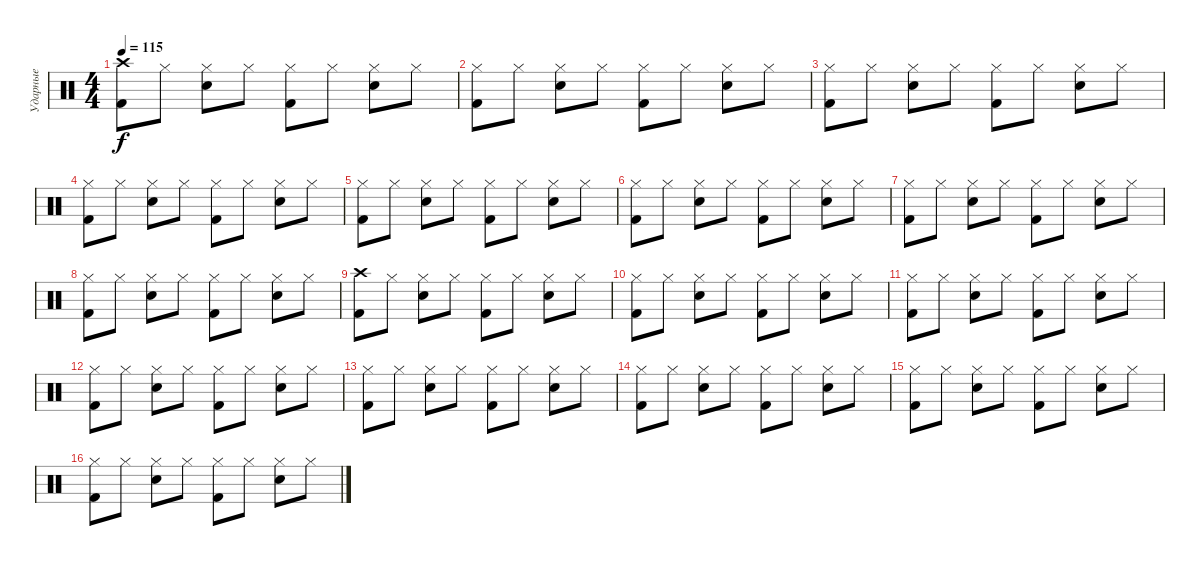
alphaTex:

\track ("Ударные" "Ударные") {instrument percussion}
\staff {score}
\articulation defaults
\ts (4 4)
\tempo 115
\clef neutral
\ks c
("Crash high (hit)" "Kick (hit) 2").8{dy f} "Hi-Hat (closed)".8 ("Hi-Hat (closed)" "Snare (hit) 2").8 "Hi-Hat (closed)".8 ("Hi-Hat (closed)" "Kick (hit) 2").8 "Hi-Hat (closed)".8 ("Hi-Hat (closed)" "Snare (hit) 2").8 "Hi-Hat (closed)".8 |
("Hi-Hat (closed)" "Kick (hit) 2").8 "Hi-Hat (closed)".8 ("Hi-Hat (closed)" "Snare (hit) 2").8 "Hi-Hat (closed)".8 ("Hi-Hat (closed)" "Kick (hit) 2").8 "Hi-Hat (closed)".8 ("Hi-Hat (closed)" "Snare (hit) 2").8 "Hi-Hat (closed)".8 |
("Hi-Hat (closed)" "Kick (hit) 2").8 "Hi-Hat (closed)".8 ("Hi-Hat (closed)" "Snare (hit) 2").8 "Hi-Hat (closed)".8 ("Hi-Hat (closed)" "Kick (hit) 2").8 "Hi-Hat (closed)".8 ("Hi-Hat (closed)" "Snare (hit) 2").8 "Hi-Hat (closed)".8 |
("Hi-Hat (closed)" "Kick (hit) 2").8 "Hi-Hat (closed)".8 ("Hi-Hat (closed)" "Snare (hit) 2").8 "Hi-Hat (closed)".8 ("Hi-Hat (closed)" "Kick (hit) 2").8 "Hi-Hat (closed)".8 ("Hi-Hat (closed)" "Snare (hit) 2").8 "Hi-Hat (closed)".8 |
("Hi-Hat (closed)" "Kick (hit) 2").8 "Hi-Hat (closed)".8 ("Hi-Hat (closed)" "Snare (hit) 2").8 "Hi-Hat (closed)".8 ("Hi-Hat (closed)" "Kick (hit) 2").8 "Hi-Hat (closed)".8 ("Hi-Hat (closed)" "Snare (hit) 2").8 "Hi-Hat (closed)".8 |
("Hi-Hat (closed)" "Kick (hit) 2").8 "Hi-Hat (closed)".8 ("Hi-Hat (closed)" "Snare (hit) 2").8 "Hi-Hat (closed)".8 ("Hi-Hat (closed)" "Kick (hit) 2").8 "Hi-Hat (closed)".8 ("Hi-Hat (closed)" "Snare (hit) 2").8 "Hi-Hat (closed)".8 |
("Hi-Hat (closed)" "Kick (hit) 2").8 "Hi-Hat (closed)".8 ("Hi-Hat (closed)" "Snare (hit) 2").8 "Hi-Hat (closed)".8 ("Hi-Hat (closed)" "Kick (hit) 2").8 "Hi-Hat (closed)".8 ("Hi-Hat (closed)" "Snare (hit) 2").8 "Hi-Hat (closed)".8 |
("Hi-Hat (closed)" "Kick (hit) 2").8 "Hi-Hat (closed)".8 ("Hi-Hat (closed)" "Snare (hit) 2").8 "Hi-Hat (closed)".8 ("Hi-Hat (closed)" "Kick (hit) 2").8 "Hi-Hat (closed)".8 ("Hi-Hat (closed)" "Snare (hit) 2").8 "Hi-Hat (closed)".8 |
("Crash high (hit)" "Kick (hit) 2").8 "Hi-Hat (closed)".8 ("Hi-Hat (closed)" "Snare (hit) 2").8 "Hi-Hat (closed)".8 ("Hi-Hat (closed)" "Kick (hit) 2").8 "Hi-Hat (closed)".8 ("Hi-Hat (closed)" "Snare (hit) 2").8 "Hi-Hat (closed)".8 |
("Hi-Hat (closed)" "Kick (hit) 2").8 "Hi-Hat (closed)".8 ("Hi-Hat (closed)" "Snare (hit) 2").8 "Hi-Hat (closed)".8 ("Hi-Hat (closed)" "Kick (hit) 2").8 "Hi-Hat (closed)".8 ("Hi-Hat (closed)" "Snare (hit) 2").8 "Hi-Hat (closed)".8 |
("Hi-Hat (closed)" "Kick (hit) 2").8 "Hi-Hat (closed)".8 ("Hi-Hat (closed)" "Snare (hit) 2").8 "Hi-Hat (closed)".8 ("Hi-Hat (closed)" "Kick (hit) 2").8 "Hi-Hat (closed)".8 ("Hi-Hat (closed)" "Snare (hit) 2").8 "Hi-Hat (closed)".8 |
("Hi-Hat (closed)" "Kick (hit) 2").8 "Hi-Hat (closed)".8 ("Hi-Hat (closed)" "Snare (hit) 2").8 "Hi-Hat (closed)".8 ("Hi-Hat (closed)" "Kick (hit) 2").8 "Hi-Hat (closed)".8 ("Hi-Hat (closed)" "Snare (hit) 2").8 "Hi-Hat (closed)".8 |
("Hi-Hat (closed)" "Kick (hit) 2").8 "Hi-Hat (closed)".8 ("Hi-Hat (closed)" "Snare (hit) 2").8 "Hi-Hat (closed)".8 ("Hi-Hat (closed)" "Kick (hit) 2").8 "Hi-Hat (closed)".8 ("Hi-Hat (closed)" "Snare (hit) 2").8 "Hi-Hat (closed)".8 |
("Hi-Hat (closed)" "Kick (hit) 2").8 "Hi-Hat (closed)".8 ("Hi-Hat (closed)" "Snare (hit) 2").8 "Hi-Hat (closed)".8 ("Hi-Hat (closed)" "Kick (hit) 2").8 "Hi-Hat (closed)".8 ("Hi-Hat (closed)" "Snare (hit) 2").8 "Hi-Hat (closed)".8 |
("Hi-Hat (closed)" "Kick (hit) 2").8 "Hi-Hat (closed)".8 ("Hi-Hat (closed)" "Snare (hit) 2").8 "Hi-Hat (closed)".8 ("Hi-Hat (closed)" "Kick (hit) 2").8 "Hi-Hat (closed)".8 ("Hi-Hat (closed)" "Snare (hit) 2").8 "Hi-Hat (closed)".8 |
("Hi-Hat (closed)" "Kick (hit) 2").8 "Hi-Hat (closed)".8 ("Hi-Hat (closed)" "Snare (hit) 2").8 "Hi-Hat (closed)".8 ("Hi-Hat (closed)" "Kick (hit) 2").8 "Hi-Hat (closed)".8 ("Hi-Hat (closed)" "Snare (hit) 2").8 "Hi-Hat (closed)".8
